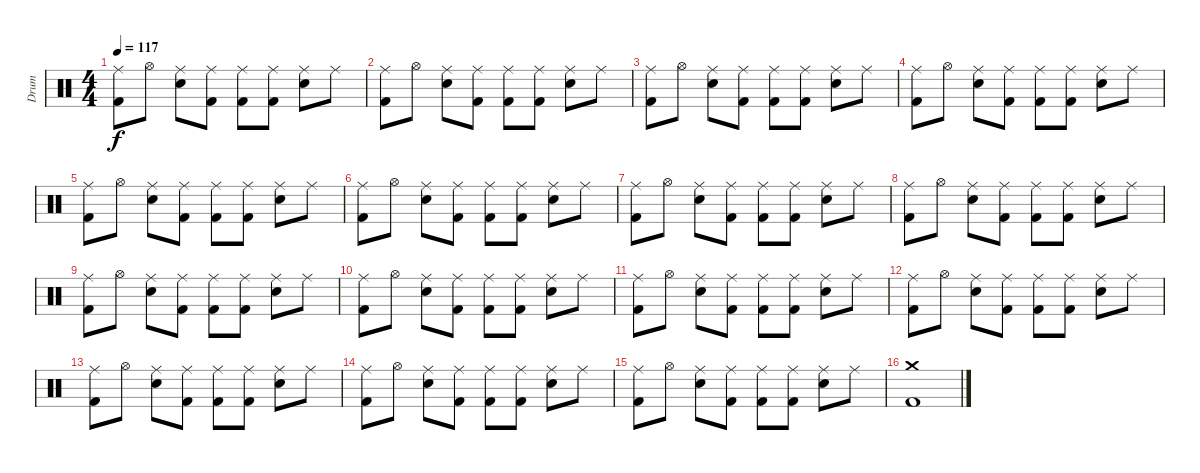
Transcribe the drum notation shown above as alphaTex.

\track ("Drum" "Drum") {instrument percussion}
\staff {score}
\articulation defaults
\ts (4 4)
\tempo 117
\clef neutral
\ks c
("Ride (middle)" "Kick (hit) 2").8{dy f} "Hi-Hat (open)".8 ("Ride (middle)" "Snare (hit) 2").8 ("Ride (middle)" "Kick (hit) 2").8 ("Ride (middle)" "Kick (hit) 2").8 ("Ride (middle)" "Kick (hit) 2").8 ("Ride (middle)" "Snare (hit) 2").8 "Ride (middle)".8 |
("Ride (middle)" "Kick (hit) 2").8 "Hi-Hat (open)".8 ("Ride (middle)" "Snare (hit) 2").8 ("Ride (middle)" "Kick (hit) 2").8 ("Ride (middle)" "Kick (hit) 2").8 ("Ride (middle)" "Kick (hit) 2").8 ("Ride (middle)" "Snare (hit) 2").8 "Ride (middle)".8 |
("Ride (middle)" "Kick (hit) 2").8 "Hi-Hat (open)".8 ("Ride (middle)" "Snare (hit) 2").8 ("Ride (middle)" "Kick (hit) 2").8 ("Ride (middle)" "Kick (hit) 2").8 ("Ride (middle)" "Kick (hit) 2").8 ("Ride (middle)" "Snare (hit) 2").8 "Ride (middle)".8 |
("Ride (middle)" "Kick (hit) 2").8 "Hi-Hat (open)".8 ("Ride (middle)" "Snare (hit) 2").8 ("Ride (middle)" "Kick (hit) 2").8 ("Ride (middle)" "Kick (hit) 2").8 ("Ride (middle)" "Kick (hit) 2").8 ("Ride (middle)" "Snare (hit) 2").8 "Ride (middle)".8 |
("Ride (middle)" "Kick (hit) 2").8 "Hi-Hat (open)".8 ("Ride (middle)" "Snare (hit) 2").8 ("Ride (middle)" "Kick (hit) 2").8 ("Ride (middle)" "Kick (hit) 2").8 ("Ride (middle)" "Kick (hit) 2").8 ("Ride (middle)" "Snare (hit) 2").8 "Ride (middle)".8 |
("Ride (middle)" "Kick (hit) 2").8 "Hi-Hat (open)".8 ("Ride (middle)" "Snare (hit) 2").8 ("Ride (middle)" "Kick (hit) 2").8 ("Ride (middle)" "Kick (hit) 2").8 ("Ride (middle)" "Kick (hit) 2").8 ("Ride (middle)" "Snare (hit) 2").8 "Ride (middle)".8 |
("Ride (middle)" "Kick (hit) 2").8 "Hi-Hat (open)".8 ("Ride (middle)" "Snare (hit) 2").8 ("Ride (middle)" "Kick (hit) 2").8 ("Ride (middle)" "Kick (hit) 2").8 ("Ride (middle)" "Kick (hit) 2").8 ("Ride (middle)" "Snare (hit) 2").8 "Ride (middle)".8 |
("Ride (middle)" "Kick (hit) 2").8 "Hi-Hat (open)".8 ("Ride (middle)" "Snare (hit) 2").8 ("Ride (middle)" "Kick (hit) 2").8 ("Ride (middle)" "Kick (hit) 2").8 ("Ride (middle)" "Kick (hit) 2").8 ("Ride (middle)" "Snare (hit) 2").8 "Ride (middle)".8 |
("Ride (middle)" "Kick (hit) 2").8 "Hi-Hat (open)".8 ("Ride (middle)" "Snare (hit) 2").8 ("Ride (middle)" "Kick (hit) 2").8 ("Ride (middle)" "Kick (hit) 2").8 ("Ride (middle)" "Kick (hit) 2").8 ("Ride (middle)" "Snare (hit) 2").8 "Ride (middle)".8 |
("Ride (middle)" "Kick (hit) 2").8 "Hi-Hat (open)".8 ("Ride (middle)" "Snare (hit) 2").8 ("Ride (middle)" "Kick (hit) 2").8 ("Ride (middle)" "Kick (hit) 2").8 ("Ride (middle)" "Kick (hit) 2").8 ("Ride (middle)" "Snare (hit) 2").8 "Ride (middle)".8 |
("Ride (middle)" "Kick (hit) 2").8 "Hi-Hat (open)".8 ("Ride (middle)" "Snare (hit) 2").8 ("Ride (middle)" "Kick (hit) 2").8 ("Ride (middle)" "Kick (hit) 2").8 ("Ride (middle)" "Kick (hit) 2").8 ("Ride (middle)" "Snare (hit) 2").8 "Ride (middle)".8 |
("Ride (middle)" "Kick (hit) 2").8 "Hi-Hat (open)".8 ("Ride (middle)" "Snare (hit) 2").8 ("Ride (middle)" "Kick (hit) 2").8 ("Ride (middle)" "Kick (hit) 2").8 ("Ride (middle)" "Kick (hit) 2").8 ("Ride (middle)" "Snare (hit) 2").8 "Ride (middle)".8 |
("Ride (middle)" "Kick (hit) 2").8 "Hi-Hat (open)".8 ("Ride (middle)" "Snare (hit) 2").8 ("Ride (middle)" "Kick (hit) 2").8 ("Ride (middle)" "Kick (hit) 2").8 ("Ride (middle)" "Kick (hit) 2").8 ("Ride (middle)" "Snare (hit) 2").8 "Ride (middle)".8 |
("Ride (middle)" "Kick (hit) 2").8 "Hi-Hat (open)".8 ("Ride (middle)" "Snare (hit) 2").8 ("Ride (middle)" "Kick (hit) 2").8 ("Ride (middle)" "Kick (hit) 2").8 ("Ride (middle)" "Kick (hit) 2").8 ("Ride (middle)" "Snare (hit) 2").8 "Ride (middle)".8 |
("Ride (middle)" "Kick (hit) 2").8 "Hi-Hat (open)".8 ("Ride (middle)" "Snare (hit) 2").8 ("Ride (middle)" "Kick (hit) 2").8 ("Ride (middle)" "Kick (hit) 2").8 ("Ride (middle)" "Kick (hit) 2").8 ("Ride (middle)" "Snare (hit) 2").8 "Ride (middle)".8 |
("Crash medium (hit)" "Kick (hit) 2").1
